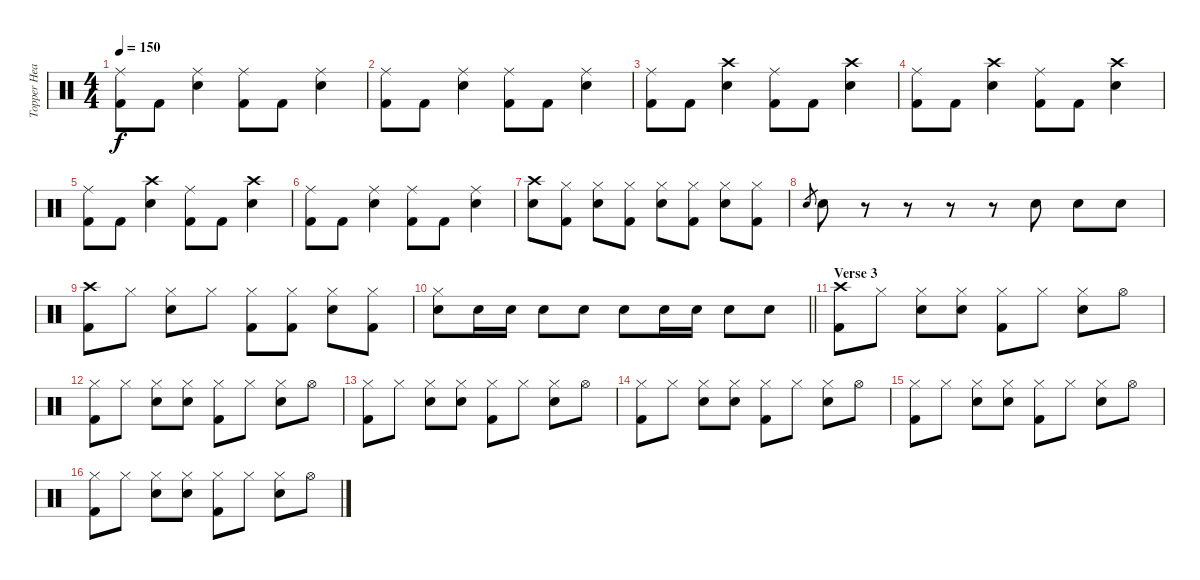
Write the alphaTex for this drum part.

\track ("Topper Headon - Drums" "Topper Hea") {instrument percussion}
\staff {score}
\articulation defaults
\ts (4 4)
\tempo 150
\clef neutral
\ks c
("Ride (middle)" "Kick (hit) 2").8{dy f} "Kick (hit) 2".8 ("Ride (middle)" "Electric Snare (hit)").4 ("Ride (middle)" "Kick (hit) 2").8 "Kick (hit) 2".8 ("Ride (middle)" "Electric Snare (hit)").4 |
("Ride (middle)" "Kick (hit) 2").8 "Kick (hit) 2".8 ("Ride (middle)" "Electric Snare (hit)").4 ("Ride (middle)" "Kick (hit) 2").8 "Kick (hit) 2".8 ("Ride (middle)" "Electric Snare (hit)").4 |
("Ride (middle)" "Kick (hit) 2").8 "Kick (hit) 2".8 ("Crash high (hit)" "Electric Snare (hit)").4 ("Ride (middle)" "Kick (hit) 2").8 "Kick (hit) 2".8 ("Crash high (hit)" "Electric Snare (hit)").4 |
("Ride (middle)" "Kick (hit) 2").8 "Kick (hit) 2".8 ("Crash high (hit)" "Electric Snare (hit)").4 ("Ride (middle)" "Kick (hit) 2").8 "Kick (hit) 2".8 ("Crash high (hit)" "Electric Snare (hit)").4 |
("Ride (middle)" "Kick (hit) 2").8 "Kick (hit) 2".8 ("Crash high (hit)" "Electric Snare (hit)").4 ("Ride (middle)" "Kick (hit) 2").8 "Kick (hit) 2".8 ("Crash high (hit)" "Electric Snare (hit)").4 |
("Ride (middle)" "Kick (hit) 2").8 "Kick (hit) 2".8 ("Ride (middle)" "Electric Snare (hit)").4 ("Ride (middle)" "Kick (hit) 2").8 "Kick (hit) 2".8 ("Ride (middle)" "Electric Snare (hit)").4 |
("Crash high (hit)" "Electric Snare (hit)").8 ("Hi-Hat (closed)" "Kick (hit) 2").8 ("Hi-Hat (closed)" "Electric Snare (hit)").8 ("Hi-Hat (closed)" "Kick (hit) 2").8 ("Hi-Hat (closed)" "Electric Snare (hit)").8 ("Hi-Hat (closed)" "Kick (hit) 2").8 ("Hi-Hat (closed)" "Electric Snare (hit)").8 ("Hi-Hat (closed)" "Kick (hit) 2").8 |
"Electric Snare (hit)".8{gr} "Electric Snare (hit)".8 r.8 r.8 r.8 r.8 "Electric Snare (hit)".8 "Electric Snare (hit)".8 "Electric Snare (hit)".8 |
("Crash high (hit)" "Kick (hit) 2").8 "Hi-Hat (closed)".8 ("Hi-Hat (closed)" "Electric Snare (hit)").8 "Hi-Hat (closed)".8 ("Hi-Hat (closed)" "Kick (hit) 2").8 ("Hi-Hat (closed)" "Kick (hit) 2").8 ("Hi-Hat (closed)" "Electric Snare (hit)").8 ("Hi-Hat (closed)" "Kick (hit) 2").8 |
\barLineRight lightlight
("Hi-Hat (closed)" "Electric Snare (hit)").8 "Electric Snare (hit)".16 "Electric Snare (hit)".16 "Electric Snare (hit)".8 "Electric Snare (hit)".8 "Electric Snare (hit)".8 "Electric Snare (hit)".16 "Electric Snare (hit)".16 "Electric Snare (hit)".8 "Electric Snare (hit)".8 |
\section ("" "Verse 3")
("Crash high (hit)" "Kick (hit) 2").8 "Hi-Hat (closed)".8 ("Hi-Hat (closed)" "Electric Snare (hit)").8 ("Hi-Hat (closed)" "Electric Snare (hit)").8 ("Hi-Hat (closed)" "Kick (hit) 2").8 "Hi-Hat (closed)".8 ("Hi-Hat (closed)" "Electric Snare (hit)").8 "Hi-Hat (open)".8 |
("Hi-Hat (closed)" "Kick (hit) 2").8 "Hi-Hat (closed)".8 ("Hi-Hat (closed)" "Electric Snare (hit)").8 ("Hi-Hat (closed)" "Electric Snare (hit)").8 ("Hi-Hat (closed)" "Kick (hit) 2").8 "Hi-Hat (closed)".8 ("Hi-Hat (closed)" "Electric Snare (hit)").8 "Hi-Hat (open)".8 |
("Hi-Hat (closed)" "Kick (hit) 2").8 "Hi-Hat (closed)".8 ("Hi-Hat (closed)" "Electric Snare (hit)").8 ("Hi-Hat (closed)" "Electric Snare (hit)").8 ("Hi-Hat (closed)" "Kick (hit) 2").8 "Hi-Hat (closed)".8 ("Hi-Hat (closed)" "Electric Snare (hit)").8 "Hi-Hat (open)".8 |
("Hi-Hat (closed)" "Kick (hit) 2").8 "Hi-Hat (closed)".8 ("Hi-Hat (closed)" "Electric Snare (hit)").8 ("Hi-Hat (closed)" "Electric Snare (hit)").8 ("Hi-Hat (closed)" "Kick (hit) 2").8 "Hi-Hat (closed)".8 ("Hi-Hat (closed)" "Electric Snare (hit)").8 "Hi-Hat (open)".8 |
("Hi-Hat (closed)" "Kick (hit) 2").8 "Hi-Hat (closed)".8 ("Hi-Hat (closed)" "Electric Snare (hit)").8 ("Hi-Hat (closed)" "Electric Snare (hit)").8 ("Hi-Hat (closed)" "Kick (hit) 2").8 "Hi-Hat (closed)".8 ("Hi-Hat (closed)" "Electric Snare (hit)").8 "Hi-Hat (open)".8 |
("Hi-Hat (closed)" "Kick (hit) 2").8 "Hi-Hat (closed)".8 ("Hi-Hat (closed)" "Electric Snare (hit)").8 ("Hi-Hat (closed)" "Electric Snare (hit)").8 ("Hi-Hat (closed)" "Kick (hit) 2").8 "Hi-Hat (closed)".8 ("Hi-Hat (closed)" "Electric Snare (hit)").8 "Hi-Hat (open)".8
